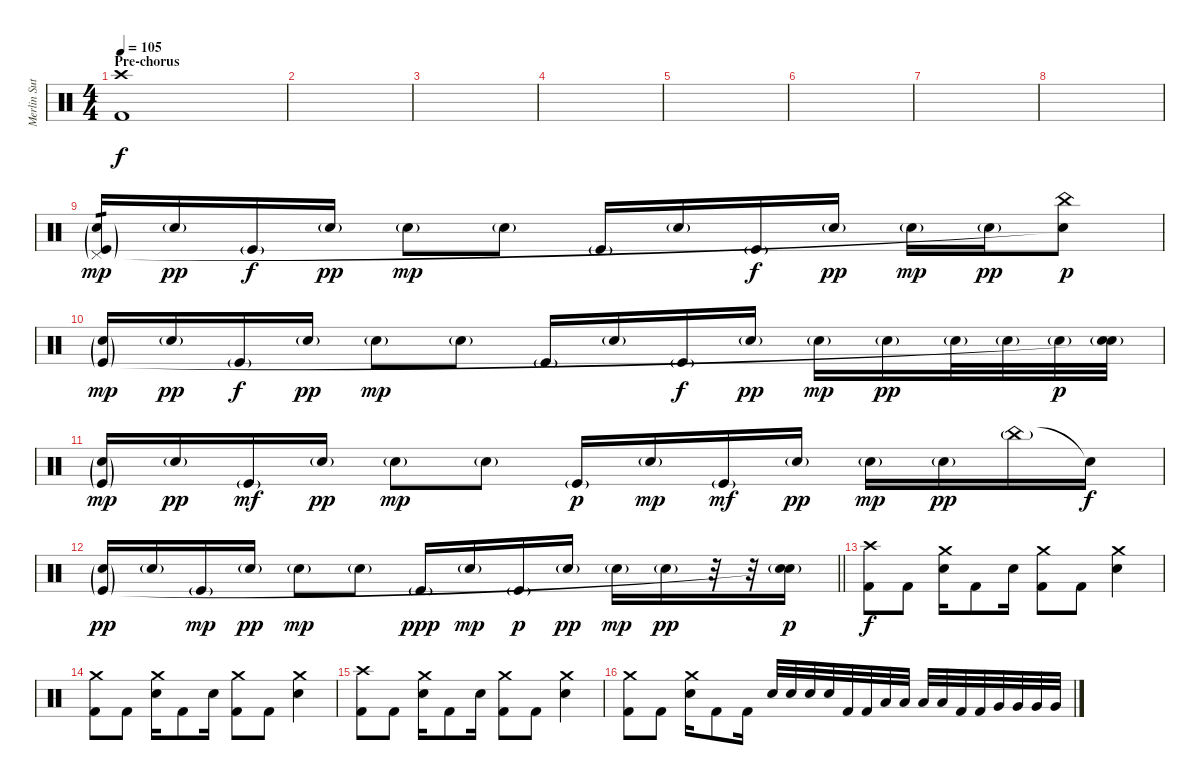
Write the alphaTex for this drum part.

\track ("Merlin Sutter" "Merlin Sut") {instrument percussion}
\staff {score}
\articulation defaults
\ts (4 4)
\section ("" "Pre-chorus")
\tempo 105
\clef neutral
\ks c
("Crash high (hit)" "Kick (hit) 2").1{dy f} |
|
|
|
|
|
|
|
("Electric Snare (hit)"{g} "Pedal Hi-Hat (hit)"{g} "Kick (hit)"{g}).16{tp 1 dy mp} "Snare (hit) 2"{g}.16{dy pp} "Kick (hit)"{g}.16{dy f} "Snare (hit) 2"{g}.16{dy pp} "Electric Snare (hit)"{g}.8{dy mp} "Electric Snare (hit)"{g}.8 "Kick (hit)"{g}.16 "Electric Snare (hit)"{g}.16 "Kick (hit)"{g}.16{dy f} "Snare (hit) 2"{g}.16{dy pp} "Electric Snare (hit)"{g}.16{dy mp} "Snare (hit) 2"{g}.16{dy pp} ("China (hit)" "Snare (hit)"{t}).8{dy p} |
("Electric Snare (hit)"{g} "Kick (hit)"{g}).16{dy mp} "Snare (hit) 2"{g}.16{dy pp} "Kick (hit)"{g}.16{dy f} "Snare (hit) 2"{g}.16{dy pp} "Electric Snare (hit)"{g}.8{dy mp} "Electric Snare (hit)"{g}.8 "Kick (hit)"{g}.16 "Electric Snare (hit)"{g}.16 "Kick (hit)"{g}.16{dy f} "Snare (hit) 2"{g}.16{dy pp} "Electric Snare (hit)"{g}.16{dy mp} "Snare (hit) 2"{g}.16{dy pp} "Electric Snare (hit)"{g}.32 "Electric Snare (hit)"{g}.32 "Electric Snare (hit)"{g}.32{dy p} ("Electric Snare (hit)"{g} "Snare (hit)"{t}).32 |
("Electric Snare (hit)"{g} "Kick (hit)"{g}).16{dy mp} "Snare (hit) 2"{g}.16{dy pp} "Kick (hit)"{g}.16{dy mf} "Snare (hit) 2"{g}.16{dy pp} "Electric Snare (hit)"{g}.8{dy mp} "Electric Snare (hit)"{g}.8 "Kick (hit)"{g}.16{dy p} "Electric Snare (hit)"{g}.16{dy mp} "Kick (hit)"{g}.16{dy mf} "Snare (hit) 2"{g}.16{dy pp} "Electric Snare (hit)"{g}.16{dy mp} "Snare (hit) 2"{g}.16{dy pp} "China (hit)"{g}.16 "Snare (hit)"{t}.16{dy f} |
\barLineRight lightlight
("Electric Snare (hit)"{g} "Kick (hit)"{g}).16{dy pp} "Snare (hit) 2"{g}.16 "Kick (hit)"{g}.16{dy mp} "Snare (hit) 2"{g}.16{dy pp} "Electric Snare (hit)"{g}.8{dy mp} "Electric Snare (hit)"{g}.8 "Kick (hit)"{g}.16{dy ppp} "Electric Snare (hit)"{g}.16{dy mp} "Kick (hit)"{g}.16{dy p} "Snare (hit) 2"{g}.16{dy pp} "Electric Snare (hit)"{g}.16{dy mp} "Snare (hit) 2"{g}.16{dy pp} r.32 r.32 ("Snare (hit) 2"{g} "Snare (hit)"{t}).16{dy p} |
("Crash high (hit)" "Kick (hit) 2").8{dy f} "Kick (hit) 2".8 ("Crash medium (hit)" "Electric Snare (hit)").16 "Kick (hit) 2".8 "Electric Snare (hit)".16 ("Crash medium (hit)" "Kick (hit) 2").8 "Kick (hit) 2".8 ("Crash medium (hit)" "Electric Snare (hit)").4 |
("Crash medium (hit)" "Kick (hit) 2").8 "Kick (hit) 2".8 ("Crash medium (hit)" "Electric Snare (hit)").16 "Kick (hit) 2".8 "Electric Snare (hit)".16 ("Crash medium (hit)" "Kick (hit) 2").8 "Kick (hit) 2".8 ("Crash medium (hit)" "Electric Snare (hit)").4 |
("Crash high (hit)" "Kick (hit) 2").8 "Kick (hit) 2".8 ("Crash medium (hit)" "Electric Snare (hit)").16 "Kick (hit) 2".8 "Electric Snare (hit)".16 ("Crash medium (hit)" "Kick (hit) 2").8 "Kick (hit) 2".8 ("Crash medium (hit)" "Electric Snare (hit)").4 |
("Crash medium (hit)" "Kick (hit) 2").8 "Kick (hit) 2".8 ("Crash medium (hit)" "Electric Snare (hit)").16 "Kick (hit) 2".8 "Kick (hit) 2".16 "Electric Snare (hit)".32 "Electric Snare (hit)".32 "Electric Snare (hit)".32 "Electric Snare (hit)".32 "Kick (hit) 2".32 "Kick (hit) 2".32 "Low Tom (hit)".32 "Low Tom (hit)".32 "Low Tom (hit)".32 "Low Tom (hit)".32 "Kick (hit) 2".32 "Kick (hit) 2".32 "Very Low Tom (hit)".32 "Very Low Tom (hit)".32 "Very Low Tom (hit)".32 "Very Low Tom (hit)".32
